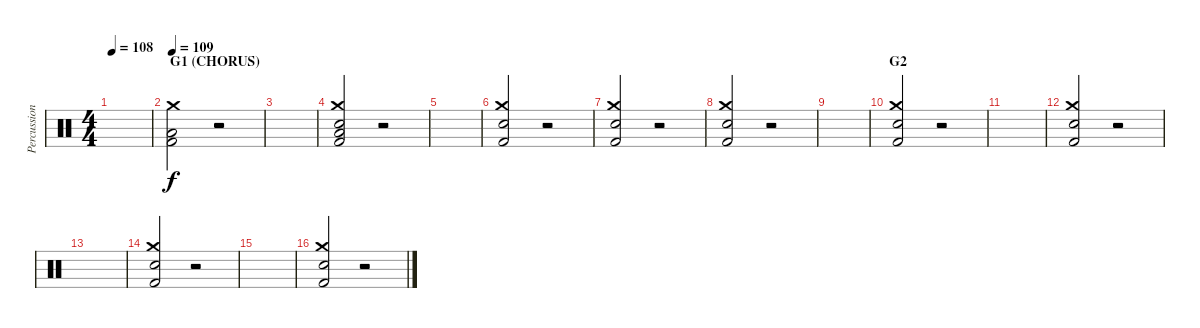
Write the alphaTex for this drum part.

\track ("Percussion" "Percussion") {instrument percussion}
\staff {score}
\articulation defaults
\ts (4 4)
\tempo 108
\clef neutral
\ks c
|
\section ("" " G1 (CHORUS)")
\tempo 109
("Kick (hit) 2" "Low Floor Tom (hit)" "Crash medium (hit)").2 r.2 |
|
("Kick (hit) 2" "Electric Snare (hit)" "Low Floor Tom (hit)" "Crash medium (hit)").2 r.2 |
|
("Kick (hit) 2" "Electric Snare (hit)" "Crash medium (hit)").2 r.2 |
("Kick (hit) 2" "Electric Snare (hit)" "Crash medium (hit)").2 r.2 |
("Kick (hit) 2" "Electric Snare (hit)" "Crash medium (hit)").2 r.2 |
|
\section ("" "G2")
("Kick (hit) 2" "Electric Snare (hit)" "Crash medium (hit)").2 r.2 |
|
("Kick (hit) 2" "Electric Snare (hit)" "Crash medium (hit)").2 r.2 |
|
("Kick (hit) 2" "Electric Snare (hit)" "Crash medium (hit)").2 r.2 |
|
("Kick (hit) 2" "Electric Snare (hit)" "Crash medium (hit)").2 r.2
